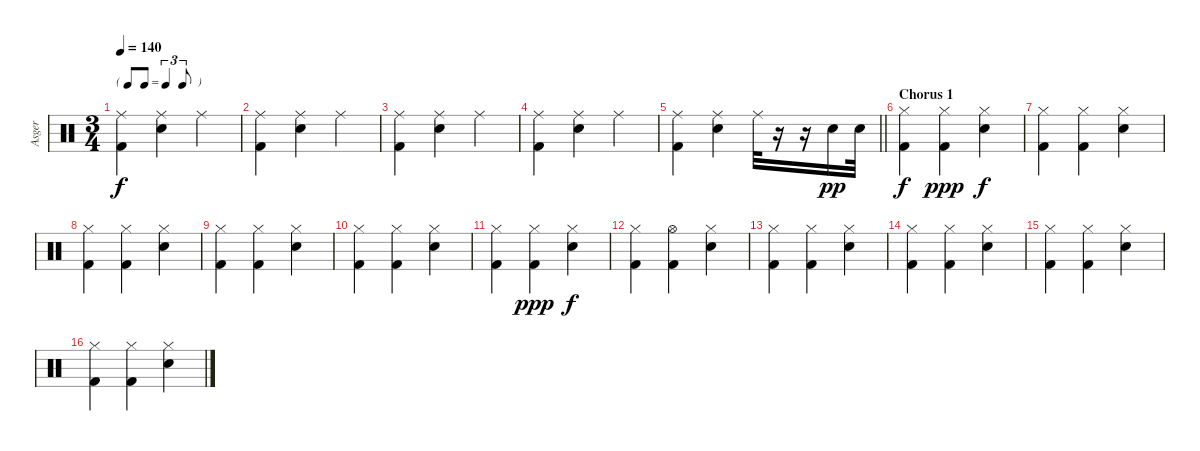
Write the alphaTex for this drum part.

\track ("Asger " "Asger ") {instrument percussion}
\staff {score}
\articulation defaults
\ts (3 4)
\tf triplet8th
\tempo 140
\clef neutral
\ks c
("Ride (middle)" "Kick (hit) 2").4{dy f} ("Ride (middle)" "Snare (hit) 2").4 "Ride (middle)".4 |
("Ride (middle)" "Kick (hit) 2").4 ("Ride (middle)" "Snare (hit) 2").4 "Ride (middle)".4 |
("Ride (middle)" "Kick (hit) 2").4 ("Ride (middle)" "Snare (hit) 2").4 "Ride (middle)".4 |
("Ride (middle)" "Kick (hit) 2").4 ("Ride (middle)" "Snare (hit) 2").4 "Ride (middle)".4 |
\barLineRight lightlight
("Ride (middle)" "Kick (hit) 2").4 ("Ride (middle)" "Snare (hit) 2").4 "Ride (middle)".32 r.16 r.16 "Snare (hit) 2".16{dy pp} "Snare (hit) 2".32 |
\section ("" "Chorus 1")
("Hi-Hat (closed)" "Kick (hit) 2").4{dy f} ("Hi-Hat (closed)" "Kick (hit) 2").4{dy ppp} ("Hi-Hat (closed)" "Snare (hit) 2").4{dy f} |
("Hi-Hat (closed)" "Kick (hit) 2").4 ("Hi-Hat (closed)" "Kick (hit) 2").4 ("Hi-Hat (closed)" "Snare (hit) 2").4 |
("Hi-Hat (closed)" "Kick (hit) 2").4 ("Hi-Hat (closed)" "Kick (hit) 2").4 ("Hi-Hat (closed)" "Snare (hit) 2").4 |
("Hi-Hat (closed)" "Kick (hit) 2").4 ("Hi-Hat (closed)" "Kick (hit) 2").4 ("Hi-Hat (closed)" "Snare (hit) 2").4 |
("Hi-Hat (closed)" "Kick (hit) 2").4 ("Hi-Hat (closed)" "Kick (hit) 2").4 ("Hi-Hat (closed)" "Snare (hit) 2").4 |
("Hi-Hat (closed)" "Kick (hit) 2").4 ("Hi-Hat (closed)" "Kick (hit) 2").4{dy ppp} ("Hi-Hat (closed)" "Snare (hit) 2").4{dy f} |
("Hi-Hat (closed)" "Kick (hit) 2").4 ("Hi-Hat (open)" "Kick (hit) 2").4 ("Hi-Hat (closed)" "Snare (hit) 2").4 |
("Hi-Hat (closed)" "Kick (hit) 2").4 ("Hi-Hat (closed)" "Kick (hit) 2").4 ("Hi-Hat (closed)" "Snare (hit) 2").4 |
("Hi-Hat (closed)" "Kick (hit) 2").4 ("Hi-Hat (closed)" "Kick (hit) 2").4 ("Hi-Hat (closed)" "Snare (hit) 2").4 |
("Hi-Hat (closed)" "Kick (hit) 2").4 ("Hi-Hat (closed)" "Kick (hit) 2").4 ("Hi-Hat (closed)" "Snare (hit) 2").4 |
("Hi-Hat (closed)" "Kick (hit) 2").4 ("Hi-Hat (closed)" "Kick (hit) 2").4 ("Hi-Hat (closed)" "Snare (hit) 2").4
